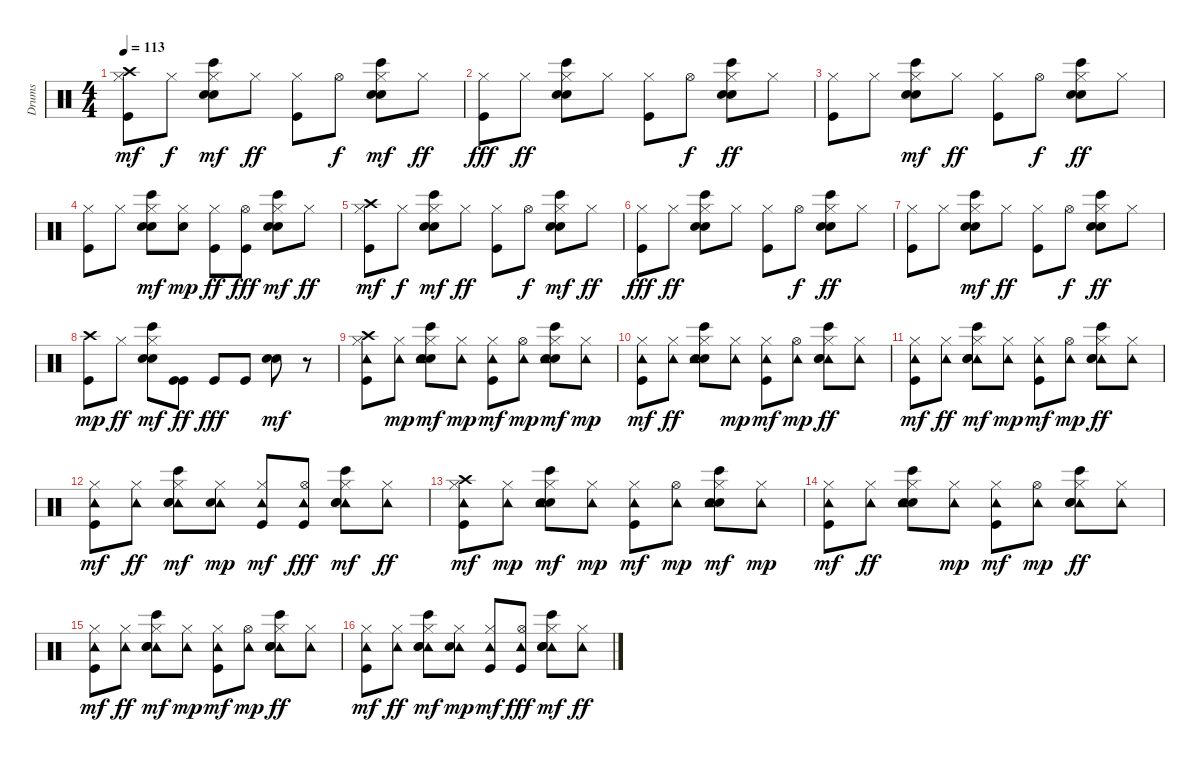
\track ("Drums" "Drums") {instrument percussion}
\staff {score}
\articulation defaults
\ts (4 4)
\tempo 113
\clef neutral
\ks c
("Kick (hit)" "Hi-Hat (closed)" "Crash high (hit)").8{dy mf} "Hi-Hat (closed)".8{dy f} ("Hi-Hat (closed)" "Bongo High (hit)" "Snare (hit) 2" "Hand Clap (hit)").8{dy mf} "Hi-Hat (closed)".8{dy ff} ("Kick (hit)" "Hi-Hat (closed)").8 "Hi-Hat (open)".8{dy f} ("Hi-Hat (closed)" "Bongo High (hit)" "Snare (hit) 2" "Hand Clap (hit)").8{dy mf} "Hi-Hat (closed)".8{dy ff} |
("Kick (hit)" "Hi-Hat (closed)").8{dy fff} "Hi-Hat (closed)".8{dy ff} ("Bongo High (hit)" "Snare (hit) 2" "Hand Clap (hit)" "Hi-Hat (closed)").8 "Hi-Hat (closed)".8 ("Kick (hit)" "Hi-Hat (closed)").8 "Hi-Hat (open)".8{dy f} ("Bongo High (hit)" "Snare (hit) 2" "Hand Clap (hit)" "Hi-Hat (closed)").8{dy ff} "Hi-Hat (closed)".8 |
("Kick (hit)" "Hi-Hat (closed)").8 "Hi-Hat (closed)".8 ("Hi-Hat (closed)" "Bongo High (hit)" "Snare (hit) 2" "Hand Clap (hit)").8{dy mf} "Hi-Hat (closed)".8{dy ff} ("Kick (hit)" "Hi-Hat (closed)").8 "Hi-Hat (open)".8{dy f} ("Bongo High (hit)" "Snare (hit) 2" "Hand Clap (hit)" "Hi-Hat (closed)").8{dy ff} "Hi-Hat (closed)".8 |
("Kick (hit)" "Hi-Hat (closed)").8 "Hi-Hat (closed)".8 ("Hi-Hat (closed)" "Bongo High (hit)" "Snare (hit) 2" "Hand Clap (hit)").8{dy mf} ("Hi-Hat (closed)" "Snare (hit) 2").8{dy mp} ("Kick (hit)" "Hi-Hat (closed)").8{dy ff} ("Hi-Hat (open)" "Kick (hit)").8{dy fff} ("Hi-Hat (closed)" "Bongo High (hit)" "Snare (hit) 2" "Hand Clap (hit)").8{dy mf} "Hi-Hat (closed)".8{dy ff} |
("Kick (hit)" "Hi-Hat (closed)" "Crash high (hit)").8{dy mf} "Hi-Hat (closed)".8{dy f} ("Hi-Hat (closed)" "Bongo High (hit)" "Snare (hit) 2" "Hand Clap (hit)").8{dy mf} "Hi-Hat (closed)".8{dy ff} ("Kick (hit)" "Hi-Hat (closed)").8 "Hi-Hat (open)".8{dy f} ("Hi-Hat (closed)" "Bongo High (hit)" "Snare (hit) 2" "Hand Clap (hit)").8{dy mf} "Hi-Hat (closed)".8{dy ff} |
("Kick (hit)" "Hi-Hat (closed)").8{dy fff} "Hi-Hat (closed)".8{dy ff} ("Bongo High (hit)" "Snare (hit) 2" "Hand Clap (hit)" "Hi-Hat (closed)").8 "Hi-Hat (closed)".8 ("Kick (hit)" "Hi-Hat (closed)").8 "Hi-Hat (open)".8{dy f} ("Bongo High (hit)" "Snare (hit) 2" "Hand Clap (hit)" "Hi-Hat (closed)").8{dy ff} "Hi-Hat (closed)".8 |
("Kick (hit)" "Hi-Hat (closed)").8 "Hi-Hat (closed)".8 ("Hi-Hat (closed)" "Bongo High (hit)" "Snare (hit) 2" "Hand Clap (hit)").8{dy mf} "Hi-Hat (closed)".8{dy ff} ("Kick (hit)" "Hi-Hat (closed)").8 "Hi-Hat (open)".8{dy f} ("Bongo High (hit)" "Snare (hit) 2" "Hand Clap (hit)" "Hi-Hat (closed)").8{dy ff} "Hi-Hat (closed)".8 |
("Kick (hit)" "Crash high (hit)").8{dy mp} "Hi-Hat (closed)".8{dy ff} ("Hi-Hat (closed)" "Bongo High (hit)" "Snare (hit) 2" "Hand Clap (hit)").8{dy mf} ("Kick (hit)" "Kick (hit)").8{dy ff} "Kick (hit)".8{dy fff} "Kick (hit)".8 ("Snare (hit) 2" "Hand Clap (hit)").8{dy mf} r.8 |
("Kick (hit)" "Hi-Hat (closed)" "Crash high (hit)" "Tambourine (hit)").8 ("Tambourine (hit)" "Hi-Hat (closed)").8{dy mp} ("Hi-Hat (closed)" "Bongo High (hit)" "Snare (hit) 2" "Hand Clap (hit)" "Tambourine (hit)").8{dy mf} ("Hi-Hat (closed)" "Tambourine (hit)").8{dy mp} ("Kick (hit)" "Hi-Hat (closed)" "Tambourine (hit)").8{dy mf} ("Tambourine (hit)" "Hi-Hat (open)").8{dy mp} ("Hi-Hat (closed)" "Bongo High (hit)" "Snare (hit) 2" "Hand Clap (hit)" "Tambourine (hit)").8{dy mf} ("Hi-Hat (closed)" "Tambourine (hit)").8{dy mp} |
("Kick (hit)" "Hi-Hat (closed)" "Tambourine (hit)").8{dy mf} ("Tambourine (hit)" "Hi-Hat (closed)").8{dy ff} ("Bongo High (hit)" "Snare (hit) 2" "Hand Clap (hit)" "Tambourine (hit)" "Hi-Hat (closed)").8 ("Hi-Hat (closed)" "Tambourine (hit)").8{dy mp} ("Kick (hit)" "Hi-Hat (closed)" "Tambourine (hit)").8{dy mf} ("Tambourine (hit)" "Hi-Hat (open)").8{dy mp} ("Tambourine (hit)" "Bongo High (hit)" "Snare (hit) 2" "Hand Clap (hit)" "Hi-Hat (closed)").8{dy ff} ("Tambourine (hit)" "Hi-Hat (closed)").8 |
("Kick (hit)" "Hi-Hat (closed)" "Tambourine (hit)").8{dy mf} ("Tambourine (hit)" "Hi-Hat (closed)").8{dy ff} ("Tambourine (hit)" "Hi-Hat (closed)" "Bongo High (hit)" "Snare (hit) 2" "Hand Clap (hit)").8{dy mf} ("Hi-Hat (closed)" "Tambourine (hit)").8{dy mp} ("Kick (hit)" "Hi-Hat (closed)" "Tambourine (hit)").8{dy mf} ("Tambourine (hit)" "Hi-Hat (open)").8{dy mp} ("Tambourine (hit)" "Bongo High (hit)" "Snare (hit) 2" "Hand Clap (hit)" "Hi-Hat (closed)").8{dy ff} ("Tambourine (hit)" "Hi-Hat (closed)").8 |
("Kick (hit)" "Hi-Hat (closed)" "Tambourine (hit)").8{dy mf} ("Tambourine (hit)" "Hi-Hat (closed)").8{dy ff} ("Hi-Hat (closed)" "Tambourine (hit)" "Bongo High (hit)" "Snare (hit) 2" "Hand Clap (hit)").8{dy mf} ("Hi-Hat (closed)" "Tambourine (hit)" "Snare (hit) 2").8{dy mp} ("Kick (hit)" "Hi-Hat (closed)" "Tambourine (hit)").8{dy mf} ("Hi-Hat (open)" "Tambourine (hit)" "Kick (hit)").8{dy fff} ("Hi-Hat (closed)" "Tambourine (hit)" "Bongo High (hit)" "Snare (hit) 2" "Hand Clap (hit)").8{dy mf} ("Tambourine (hit)" "Hi-Hat (closed)").8{dy ff} |
("Kick (hit)" "Hi-Hat (closed)" "Crash high (hit)" "Tambourine (hit)").8{dy mf} ("Tambourine (hit)" "Hi-Hat (closed)").8{dy mp} ("Hi-Hat (closed)" "Bongo High (hit)" "Snare (hit) 2" "Hand Clap (hit)" "Tambourine (hit)").8{dy mf} ("Hi-Hat (closed)" "Tambourine (hit)").8{dy mp} ("Kick (hit)" "Hi-Hat (closed)" "Tambourine (hit)").8{dy mf} ("Tambourine (hit)" "Hi-Hat (open)").8{dy mp} ("Hi-Hat (closed)" "Bongo High (hit)" "Snare (hit) 2" "Hand Clap (hit)" "Tambourine (hit)").8{dy mf} ("Hi-Hat (closed)" "Tambourine (hit)").8{dy mp} |
("Kick (hit)" "Hi-Hat (closed)" "Tambourine (hit)").8{dy mf} ("Tambourine (hit)" "Hi-Hat (closed)").8{dy ff} ("Bongo High (hit)" "Snare (hit) 2" "Hand Clap (hit)" "Tambourine (hit)" "Hi-Hat (closed)").8 ("Hi-Hat (closed)" "Tambourine (hit)").8{dy mp} ("Kick (hit)" "Hi-Hat (closed)" "Tambourine (hit)").8{dy mf} ("Tambourine (hit)" "Hi-Hat (open)").8{dy mp} ("Tambourine (hit)" "Bongo High (hit)" "Snare (hit) 2" "Hand Clap (hit)" "Hi-Hat (closed)").8{dy ff} ("Tambourine (hit)" "Hi-Hat (closed)").8 |
("Kick (hit)" "Hi-Hat (closed)" "Tambourine (hit)").8{dy mf} ("Tambourine (hit)" "Hi-Hat (closed)").8{dy ff} ("Tambourine (hit)" "Hi-Hat (closed)" "Bongo High (hit)" "Snare (hit) 2" "Hand Clap (hit)").8{dy mf} ("Hi-Hat (closed)" "Tambourine (hit)").8{dy mp} ("Kick (hit)" "Hi-Hat (closed)" "Tambourine (hit)").8{dy mf} ("Tambourine (hit)" "Hi-Hat (open)").8{dy mp} ("Tambourine (hit)" "Bongo High (hit)" "Snare (hit) 2" "Hand Clap (hit)" "Hi-Hat (closed)").8{dy ff} ("Tambourine (hit)" "Hi-Hat (closed)").8 |
("Kick (hit)" "Hi-Hat (closed)" "Tambourine (hit)").8{dy mf} ("Tambourine (hit)" "Hi-Hat (closed)").8{dy ff} ("Hi-Hat (closed)" "Tambourine (hit)" "Bongo High (hit)" "Snare (hit) 2" "Hand Clap (hit)").8{dy mf} ("Hi-Hat (closed)" "Tambourine (hit)" "Snare (hit) 2").8{dy mp} ("Kick (hit)" "Hi-Hat (closed)" "Tambourine (hit)").8{dy mf} ("Hi-Hat (open)" "Tambourine (hit)" "Kick (hit)").8{dy fff} ("Hi-Hat (closed)" "Tambourine (hit)" "Bongo High (hit)" "Snare (hit) 2" "Hand Clap (hit)").8{dy mf} ("Tambourine (hit)" "Hi-Hat (closed)").8{dy ff}
